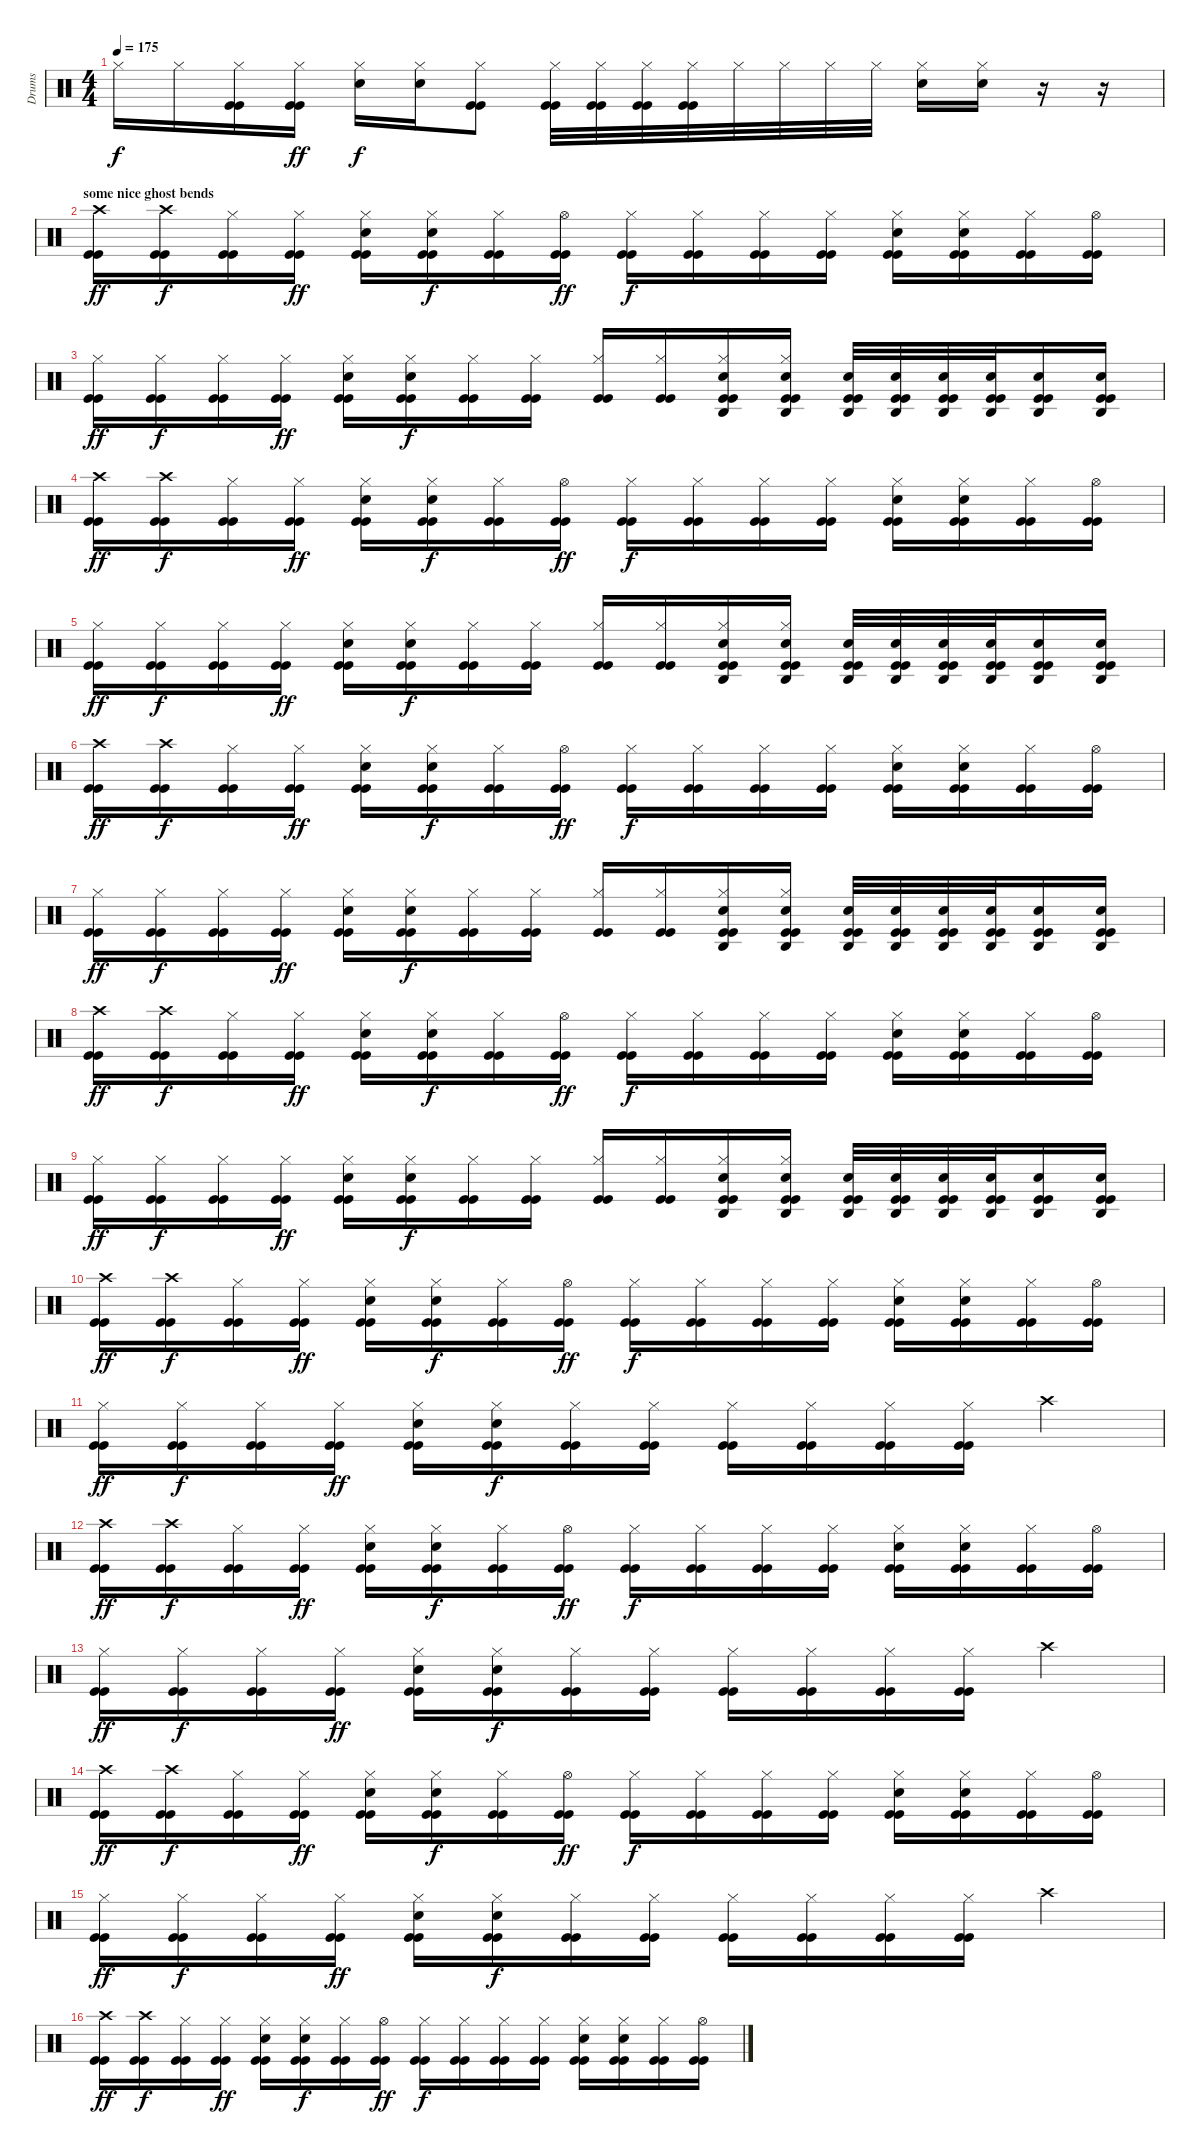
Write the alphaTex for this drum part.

\track ("Drums" "Drums") {instrument percussion}
\staff {score}
\articulation defaults
\ts (4 4)
\tempo 175
\clef neutral
\ks c "Hi-Hat (closed)".16{dy f} "Hi-Hat (closed)".16
("Hi-Hat (closed)" "Kick (hit)" "Kick (hit)").16 ("Hi-Hat (closed)" "Kick (hit)" "Kick (hit)").16{dy ff} ("Electric Snare (hit)" "Hi-Hat (closed)").16{dy f} ("Electric Snare (hit)" "Hi-Hat (closed)").16 ("Hi-Hat (closed)" "Kick (hit)" "Kick (hit)").8 ("Hi-Hat (closed)" "Kick (hit)" "Kick (hit)").32 ("Hi-Hat (closed)" "Kick (hit)" "Kick (hit)").32 ("Hi-Hat (closed)" "Kick (hit)" "Kick (hit)").32 ("Hi-Hat (closed)" "Kick (hit)" "Kick (hit)").32 "Hi-Hat (closed)".32 "Hi-Hat (closed)".32 "Hi-Hat (closed)".32 "Hi-Hat (closed)".32 ("Electric Snare (hit)" "Hi-Hat (closed)").16 ("Electric Snare (hit)" "Hi-Hat (closed)").16 r.16 r.16 |
\section ("" "some nice ghost bends")
("Crash high (hit)" "Kick (hit)" "Kick (hit)").16{dy ff} ("Crash high (hit)" "Kick (hit)" "Kick (hit)").16{dy f} ("Hi-Hat (closed)" "Kick (hit)" "Kick (hit)").16 ("Hi-Hat (closed)" "Kick (hit)" "Kick (hit)").16{dy ff} ("Electric Snare (hit)" "Hi-Hat (closed)" "Kick (hit)" "Kick (hit)").16 ("Electric Snare (hit)" "Hi-Hat (closed)" "Kick (hit)" "Kick (hit)").16{dy f} ("Hi-Hat (closed)" "Kick (hit)" "Kick (hit)").16 ("Hi-Hat (open)" "Kick (hit)" "Kick (hit)").16{dy ff} ("Hi-Hat (closed)" "Kick (hit)" "Kick (hit)").16{dy f} ("Hi-Hat (closed)" "Kick (hit)" "Kick (hit)").16 ("Hi-Hat (closed)" "Kick (hit)" "Kick (hit)").16 ("Hi-Hat (closed)" "Kick (hit)" "Kick (hit)").16 ("Electric Snare (hit)" "Hi-Hat (closed)" "Kick (hit)" "Kick (hit)").16 ("Electric Snare (hit)" "Hi-Hat (closed)" "Kick (hit)" "Kick (hit)").16 ("Hi-Hat (closed)" "Kick (hit)" "Kick (hit)").16 ("Hi-Hat (open)" "Kick (hit)" "Kick (hit)").16 |
("Hi-Hat (closed)" "Kick (hit)" "Kick (hit)").16{dy ff} ("Hi-Hat (closed)" "Kick (hit)" "Kick (hit)").16{dy f} ("Hi-Hat (closed)" "Kick (hit)" "Kick (hit)").16 ("Hi-Hat (closed)" "Kick (hit)" "Kick (hit)").16{dy ff} ("Electric Snare (hit)" "Hi-Hat (closed)" "Kick (hit)" "Kick (hit)").16 ("Electric Snare (hit)" "Hi-Hat (closed)" "Kick (hit)" "Kick (hit)").16{dy f} ("Hi-Hat (closed)" "Kick (hit)" "Kick (hit)").16 ("Hi-Hat (closed)" "Kick (hit)" "Kick (hit)").16 ("Hi-Hat (closed)" "Kick (hit)" "Kick (hit)").16 ("Hi-Hat (closed)" "Kick (hit)" "Kick (hit)").16 ("Agogo high (hit)" "Electric Snare (hit)" "Hi-Hat (closed)" "Kick (hit)" "Kick (hit)").16 ("Agogo high (hit)" "Electric Snare (hit)" "Hi-Hat (closed)" "Kick (hit)" "Kick (hit)").16 ("Agogo high (hit)" "Electric Snare (hit)" "Kick (hit)" "Kick (hit)").32 ("Agogo high (hit)" "Electric Snare (hit)" "Kick (hit)" "Kick (hit)").32 ("Agogo high (hit)" "Electric Snare (hit)" "Kick (hit)" "Kick (hit)").32 ("Agogo high (hit)" "Electric Snare (hit)" "Kick (hit)" "Kick (hit)").32 ("Agogo high (hit)" "Electric Snare (hit)" "Kick (hit)" "Kick (hit)").16 ("Agogo high (hit)" "Electric Snare (hit)" "Kick (hit)" "Kick (hit)").16 |
("Crash high (hit)" "Kick (hit)" "Kick (hit)").16{dy ff} ("Crash high (hit)" "Kick (hit)" "Kick (hit)").16{dy f} ("Hi-Hat (closed)" "Kick (hit)" "Kick (hit)").16 ("Hi-Hat (closed)" "Kick (hit)" "Kick (hit)").16{dy ff} ("Electric Snare (hit)" "Hi-Hat (closed)" "Kick (hit)" "Kick (hit)").16 ("Electric Snare (hit)" "Hi-Hat (closed)" "Kick (hit)" "Kick (hit)").16{dy f} ("Hi-Hat (closed)" "Kick (hit)" "Kick (hit)").16 ("Hi-Hat (open)" "Kick (hit)" "Kick (hit)").16{dy ff} ("Hi-Hat (closed)" "Kick (hit)" "Kick (hit)").16{dy f} ("Hi-Hat (closed)" "Kick (hit)" "Kick (hit)").16 ("Hi-Hat (closed)" "Kick (hit)" "Kick (hit)").16 ("Hi-Hat (closed)" "Kick (hit)" "Kick (hit)").16 ("Electric Snare (hit)" "Hi-Hat (closed)" "Kick (hit)" "Kick (hit)").16 ("Electric Snare (hit)" "Hi-Hat (closed)" "Kick (hit)" "Kick (hit)").16 ("Hi-Hat (closed)" "Kick (hit)" "Kick (hit)").16 ("Hi-Hat (open)" "Kick (hit)" "Kick (hit)").16 |
("Hi-Hat (closed)" "Kick (hit)" "Kick (hit)").16{dy ff} ("Hi-Hat (closed)" "Kick (hit)" "Kick (hit)").16{dy f} ("Hi-Hat (closed)" "Kick (hit)" "Kick (hit)").16 ("Hi-Hat (closed)" "Kick (hit)" "Kick (hit)").16{dy ff} ("Electric Snare (hit)" "Hi-Hat (closed)" "Kick (hit)" "Kick (hit)").16 ("Electric Snare (hit)" "Hi-Hat (closed)" "Kick (hit)" "Kick (hit)").16{dy f} ("Hi-Hat (closed)" "Kick (hit)" "Kick (hit)").16 ("Hi-Hat (closed)" "Kick (hit)" "Kick (hit)").16 ("Hi-Hat (closed)" "Kick (hit)" "Kick (hit)").16 ("Hi-Hat (closed)" "Kick (hit)" "Kick (hit)").16 ("Agogo high (hit)" "Electric Snare (hit)" "Hi-Hat (closed)" "Kick (hit)" "Kick (hit)").16 ("Agogo high (hit)" "Electric Snare (hit)" "Hi-Hat (closed)" "Kick (hit)" "Kick (hit)").16 ("Agogo high (hit)" "Electric Snare (hit)" "Kick (hit)" "Kick (hit)").32 ("Agogo high (hit)" "Electric Snare (hit)" "Kick (hit)" "Kick (hit)").32 ("Agogo high (hit)" "Electric Snare (hit)" "Kick (hit)" "Kick (hit)").32 ("Agogo high (hit)" "Electric Snare (hit)" "Kick (hit)" "Kick (hit)").32 ("Agogo high (hit)" "Electric Snare (hit)" "Kick (hit)" "Kick (hit)").16 ("Agogo high (hit)" "Electric Snare (hit)" "Kick (hit)" "Kick (hit)").16 |
("Crash high (hit)" "Kick (hit)" "Kick (hit)").16{dy ff} ("Crash high (hit)" "Kick (hit)" "Kick (hit)").16{dy f} ("Hi-Hat (closed)" "Kick (hit)" "Kick (hit)").16 ("Hi-Hat (closed)" "Kick (hit)" "Kick (hit)").16{dy ff} ("Electric Snare (hit)" "Hi-Hat (closed)" "Kick (hit)" "Kick (hit)").16 ("Electric Snare (hit)" "Hi-Hat (closed)" "Kick (hit)" "Kick (hit)").16{dy f} ("Hi-Hat (closed)" "Kick (hit)" "Kick (hit)").16 ("Hi-Hat (open)" "Kick (hit)" "Kick (hit)").16{dy ff} ("Hi-Hat (closed)" "Kick (hit)" "Kick (hit)").16{dy f} ("Hi-Hat (closed)" "Kick (hit)" "Kick (hit)").16 ("Hi-Hat (closed)" "Kick (hit)" "Kick (hit)").16 ("Hi-Hat (closed)" "Kick (hit)" "Kick (hit)").16 ("Electric Snare (hit)" "Hi-Hat (closed)" "Kick (hit)" "Kick (hit)").16 ("Electric Snare (hit)" "Hi-Hat (closed)" "Kick (hit)" "Kick (hit)").16 ("Hi-Hat (closed)" "Kick (hit)" "Kick (hit)").16 ("Hi-Hat (open)" "Kick (hit)" "Kick (hit)").16 |
("Hi-Hat (closed)" "Kick (hit)" "Kick (hit)").16{dy ff} ("Hi-Hat (closed)" "Kick (hit)" "Kick (hit)").16{dy f} ("Hi-Hat (closed)" "Kick (hit)" "Kick (hit)").16 ("Hi-Hat (closed)" "Kick (hit)" "Kick (hit)").16{dy ff} ("Electric Snare (hit)" "Hi-Hat (closed)" "Kick (hit)" "Kick (hit)").16 ("Electric Snare (hit)" "Hi-Hat (closed)" "Kick (hit)" "Kick (hit)").16{dy f} ("Hi-Hat (closed)" "Kick (hit)" "Kick (hit)").16 ("Hi-Hat (closed)" "Kick (hit)" "Kick (hit)").16 ("Hi-Hat (closed)" "Kick (hit)" "Kick (hit)").16 ("Hi-Hat (closed)" "Kick (hit)" "Kick (hit)").16 ("Agogo high (hit)" "Electric Snare (hit)" "Hi-Hat (closed)" "Kick (hit)" "Kick (hit)").16 ("Agogo high (hit)" "Electric Snare (hit)" "Hi-Hat (closed)" "Kick (hit)" "Kick (hit)").16 ("Agogo high (hit)" "Electric Snare (hit)" "Kick (hit)" "Kick (hit)").32 ("Agogo high (hit)" "Electric Snare (hit)" "Kick (hit)" "Kick (hit)").32 ("Agogo high (hit)" "Electric Snare (hit)" "Kick (hit)" "Kick (hit)").32 ("Agogo high (hit)" "Electric Snare (hit)" "Kick (hit)" "Kick (hit)").32 ("Agogo high (hit)" "Electric Snare (hit)" "Kick (hit)" "Kick (hit)").16 ("Agogo high (hit)" "Electric Snare (hit)" "Kick (hit)" "Kick (hit)").16 |
("Crash high (hit)" "Kick (hit)" "Kick (hit)").16{dy ff} ("Crash high (hit)" "Kick (hit)" "Kick (hit)").16{dy f} ("Hi-Hat (closed)" "Kick (hit)" "Kick (hit)").16 ("Hi-Hat (closed)" "Kick (hit)" "Kick (hit)").16{dy ff} ("Electric Snare (hit)" "Hi-Hat (closed)" "Kick (hit)" "Kick (hit)").16 ("Electric Snare (hit)" "Hi-Hat (closed)" "Kick (hit)" "Kick (hit)").16{dy f} ("Hi-Hat (closed)" "Kick (hit)" "Kick (hit)").16 ("Hi-Hat (open)" "Kick (hit)" "Kick (hit)").16{dy ff} ("Hi-Hat (closed)" "Kick (hit)" "Kick (hit)").16{dy f} ("Hi-Hat (closed)" "Kick (hit)" "Kick (hit)").16 ("Hi-Hat (closed)" "Kick (hit)" "Kick (hit)").16 ("Hi-Hat (closed)" "Kick (hit)" "Kick (hit)").16 ("Electric Snare (hit)" "Hi-Hat (closed)" "Kick (hit)" "Kick (hit)").16 ("Electric Snare (hit)" "Hi-Hat (closed)" "Kick (hit)" "Kick (hit)").16 ("Hi-Hat (closed)" "Kick (hit)" "Kick (hit)").16 ("Hi-Hat (open)" "Kick (hit)" "Kick (hit)").16 |
("Hi-Hat (closed)" "Kick (hit)" "Kick (hit)").16{dy ff} ("Hi-Hat (closed)" "Kick (hit)" "Kick (hit)").16{dy f} ("Hi-Hat (closed)" "Kick (hit)" "Kick (hit)").16 ("Hi-Hat (closed)" "Kick (hit)" "Kick (hit)").16{dy ff} ("Electric Snare (hit)" "Hi-Hat (closed)" "Kick (hit)" "Kick (hit)").16 ("Electric Snare (hit)" "Hi-Hat (closed)" "Kick (hit)" "Kick (hit)").16{dy f} ("Hi-Hat (closed)" "Kick (hit)" "Kick (hit)").16 ("Hi-Hat (closed)" "Kick (hit)" "Kick (hit)").16 ("Hi-Hat (closed)" "Kick (hit)" "Kick (hit)").16 ("Hi-Hat (closed)" "Kick (hit)" "Kick (hit)").16 ("Agogo high (hit)" "Electric Snare (hit)" "Hi-Hat (closed)" "Kick (hit)" "Kick (hit)").16 ("Agogo high (hit)" "Electric Snare (hit)" "Hi-Hat (closed)" "Kick (hit)" "Kick (hit)").16 ("Agogo high (hit)" "Electric Snare (hit)" "Kick (hit)" "Kick (hit)").32 ("Agogo high (hit)" "Electric Snare (hit)" "Kick (hit)" "Kick (hit)").32 ("Agogo high (hit)" "Electric Snare (hit)" "Kick (hit)" "Kick (hit)").32 ("Agogo high (hit)" "Electric Snare (hit)" "Kick (hit)" "Kick (hit)").32 ("Agogo high (hit)" "Electric Snare (hit)" "Kick (hit)" "Kick (hit)").16 ("Agogo high (hit)" "Electric Snare (hit)" "Kick (hit)" "Kick (hit)").16 |
("Crash high (hit)" "Kick (hit)" "Kick (hit)").16{dy ff} ("Crash high (hit)" "Kick (hit)" "Kick (hit)").16{dy f} ("Hi-Hat (closed)" "Kick (hit)" "Kick (hit)").16 ("Hi-Hat (closed)" "Kick (hit)" "Kick (hit)").16{dy ff} ("Electric Snare (hit)" "Hi-Hat (closed)" "Kick (hit)" "Kick (hit)").16 ("Electric Snare (hit)" "Hi-Hat (closed)" "Kick (hit)" "Kick (hit)").16{dy f} ("Hi-Hat (closed)" "Kick (hit)" "Kick (hit)").16 ("Hi-Hat (open)" "Kick (hit)" "Kick (hit)").16{dy ff} ("Hi-Hat (closed)" "Kick (hit)" "Kick (hit)").16{dy f} ("Hi-Hat (closed)" "Kick (hit)" "Kick (hit)").16 ("Hi-Hat (closed)" "Kick (hit)" "Kick (hit)").16 ("Hi-Hat (closed)" "Kick (hit)" "Kick (hit)").16 ("Electric Snare (hit)" "Hi-Hat (closed)" "Kick (hit)" "Kick (hit)").16 ("Electric Snare (hit)" "Hi-Hat (closed)" "Kick (hit)" "Kick (hit)").16 ("Hi-Hat (closed)" "Kick (hit)" "Kick (hit)").16 ("Hi-Hat (open)" "Kick (hit)" "Kick (hit)").16 |
("Hi-Hat (closed)" "Kick (hit)" "Kick (hit)").16{dy ff} ("Hi-Hat (closed)" "Kick (hit)" "Kick (hit)").16{dy f} ("Hi-Hat (closed)" "Kick (hit)" "Kick (hit)").16 ("Hi-Hat (closed)" "Kick (hit)" "Kick (hit)").16{dy ff} ("Electric Snare (hit)" "Hi-Hat (closed)" "Kick (hit)" "Kick (hit)").16 ("Electric Snare (hit)" "Hi-Hat (closed)" "Kick (hit)" "Kick (hit)").16{dy f} ("Hi-Hat (closed)" "Kick (hit)" "Kick (hit)").16 ("Hi-Hat (closed)" "Kick (hit)" "Kick (hit)").16 ("Hi-Hat (closed)" "Kick (hit)" "Kick (hit)").16 ("Hi-Hat (closed)" "Kick (hit)" "Kick (hit)").16 ("Hi-Hat (closed)" "Kick (hit)" "Kick (hit)").16 ("Hi-Hat (closed)" "Kick (hit)" "Kick (hit)").16 "Crash high (hit)".4 |
("Crash high (hit)" "Kick (hit)" "Kick (hit)").16{dy ff} ("Crash high (hit)" "Kick (hit)" "Kick (hit)").16{dy f} ("Hi-Hat (closed)" "Kick (hit)" "Kick (hit)").16 ("Hi-Hat (closed)" "Kick (hit)" "Kick (hit)").16{dy ff} ("Electric Snare (hit)" "Hi-Hat (closed)" "Kick (hit)" "Kick (hit)").16 ("Electric Snare (hit)" "Hi-Hat (closed)" "Kick (hit)" "Kick (hit)").16{dy f} ("Hi-Hat (closed)" "Kick (hit)" "Kick (hit)").16 ("Hi-Hat (open)" "Kick (hit)" "Kick (hit)").16{dy ff} ("Hi-Hat (closed)" "Kick (hit)" "Kick (hit)").16{dy f} ("Hi-Hat (closed)" "Kick (hit)" "Kick (hit)").16 ("Hi-Hat (closed)" "Kick (hit)" "Kick (hit)").16 ("Hi-Hat (closed)" "Kick (hit)" "Kick (hit)").16 ("Electric Snare (hit)" "Hi-Hat (closed)" "Kick (hit)" "Kick (hit)").16 ("Electric Snare (hit)" "Hi-Hat (closed)" "Kick (hit)" "Kick (hit)").16 ("Hi-Hat (closed)" "Kick (hit)" "Kick (hit)").16 ("Hi-Hat (open)" "Kick (hit)" "Kick (hit)").16 |
("Hi-Hat (closed)" "Kick (hit)" "Kick (hit)").16{dy ff} ("Hi-Hat (closed)" "Kick (hit)" "Kick (hit)").16{dy f} ("Hi-Hat (closed)" "Kick (hit)" "Kick (hit)").16 ("Hi-Hat (closed)" "Kick (hit)" "Kick (hit)").16{dy ff} ("Electric Snare (hit)" "Hi-Hat (closed)" "Kick (hit)" "Kick (hit)").16 ("Electric Snare (hit)" "Hi-Hat (closed)" "Kick (hit)" "Kick (hit)").16{dy f} ("Hi-Hat (closed)" "Kick (hit)" "Kick (hit)").16 ("Hi-Hat (closed)" "Kick (hit)" "Kick (hit)").16 ("Hi-Hat (closed)" "Kick (hit)" "Kick (hit)").16 ("Hi-Hat (closed)" "Kick (hit)" "Kick (hit)").16 ("Hi-Hat (closed)" "Kick (hit)" "Kick (hit)").16 ("Hi-Hat (closed)" "Kick (hit)" "Kick (hit)").16 "Crash high (hit)".4 |
("Crash high (hit)" "Kick (hit)" "Kick (hit)").16{dy ff} ("Crash high (hit)" "Kick (hit)" "Kick (hit)").16{dy f} ("Hi-Hat (closed)" "Kick (hit)" "Kick (hit)").16 ("Hi-Hat (closed)" "Kick (hit)" "Kick (hit)").16{dy ff} ("Electric Snare (hit)" "Hi-Hat (closed)" "Kick (hit)" "Kick (hit)").16 ("Electric Snare (hit)" "Hi-Hat (closed)" "Kick (hit)" "Kick (hit)").16{dy f} ("Hi-Hat (closed)" "Kick (hit)" "Kick (hit)").16 ("Hi-Hat (open)" "Kick (hit)" "Kick (hit)").16{dy ff} ("Hi-Hat (closed)" "Kick (hit)" "Kick (hit)").16{dy f} ("Hi-Hat (closed)" "Kick (hit)" "Kick (hit)").16 ("Hi-Hat (closed)" "Kick (hit)" "Kick (hit)").16 ("Hi-Hat (closed)" "Kick (hit)" "Kick (hit)").16 ("Electric Snare (hit)" "Hi-Hat (closed)" "Kick (hit)" "Kick (hit)").16 ("Electric Snare (hit)" "Hi-Hat (closed)" "Kick (hit)" "Kick (hit)").16 ("Hi-Hat (closed)" "Kick (hit)" "Kick (hit)").16 ("Hi-Hat (open)" "Kick (hit)" "Kick (hit)").16 |
("Hi-Hat (closed)" "Kick (hit)" "Kick (hit)").16{dy ff} ("Hi-Hat (closed)" "Kick (hit)" "Kick (hit)").16{dy f} ("Hi-Hat (closed)" "Kick (hit)" "Kick (hit)").16 ("Hi-Hat (closed)" "Kick (hit)" "Kick (hit)").16{dy ff} ("Electric Snare (hit)" "Hi-Hat (closed)" "Kick (hit)" "Kick (hit)").16 ("Electric Snare (hit)" "Hi-Hat (closed)" "Kick (hit)" "Kick (hit)").16{dy f} ("Hi-Hat (closed)" "Kick (hit)" "Kick (hit)").16 ("Hi-Hat (closed)" "Kick (hit)" "Kick (hit)").16 ("Hi-Hat (closed)" "Kick (hit)" "Kick (hit)").16 ("Hi-Hat (closed)" "Kick (hit)" "Kick (hit)").16 ("Hi-Hat (closed)" "Kick (hit)" "Kick (hit)").16 ("Hi-Hat (closed)" "Kick (hit)" "Kick (hit)").16 "Crash high (hit)".4 |
("Crash high (hit)" "Kick (hit)" "Kick (hit)").16{dy ff} ("Crash high (hit)" "Kick (hit)" "Kick (hit)").16{dy f} ("Hi-Hat (closed)" "Kick (hit)" "Kick (hit)").16 ("Hi-Hat (closed)" "Kick (hit)" "Kick (hit)").16{dy ff} ("Electric Snare (hit)" "Hi-Hat (closed)" "Kick (hit)" "Kick (hit)").16 ("Electric Snare (hit)" "Hi-Hat (closed)" "Kick (hit)" "Kick (hit)").16{dy f} ("Hi-Hat (closed)" "Kick (hit)" "Kick (hit)").16 ("Hi-Hat (open)" "Kick (hit)" "Kick (hit)").16{dy ff} ("Hi-Hat (closed)" "Kick (hit)" "Kick (hit)").16{dy f} ("Hi-Hat (closed)" "Kick (hit)" "Kick (hit)").16 ("Hi-Hat (closed)" "Kick (hit)" "Kick (hit)").16 ("Hi-Hat (closed)" "Kick (hit)" "Kick (hit)").16 ("Electric Snare (hit)" "Hi-Hat (closed)" "Kick (hit)" "Kick (hit)").16 ("Electric Snare (hit)" "Hi-Hat (closed)" "Kick (hit)" "Kick (hit)").16 ("Hi-Hat (closed)" "Kick (hit)" "Kick (hit)").16 ("Hi-Hat (open)" "Kick (hit)" "Kick (hit)").16
